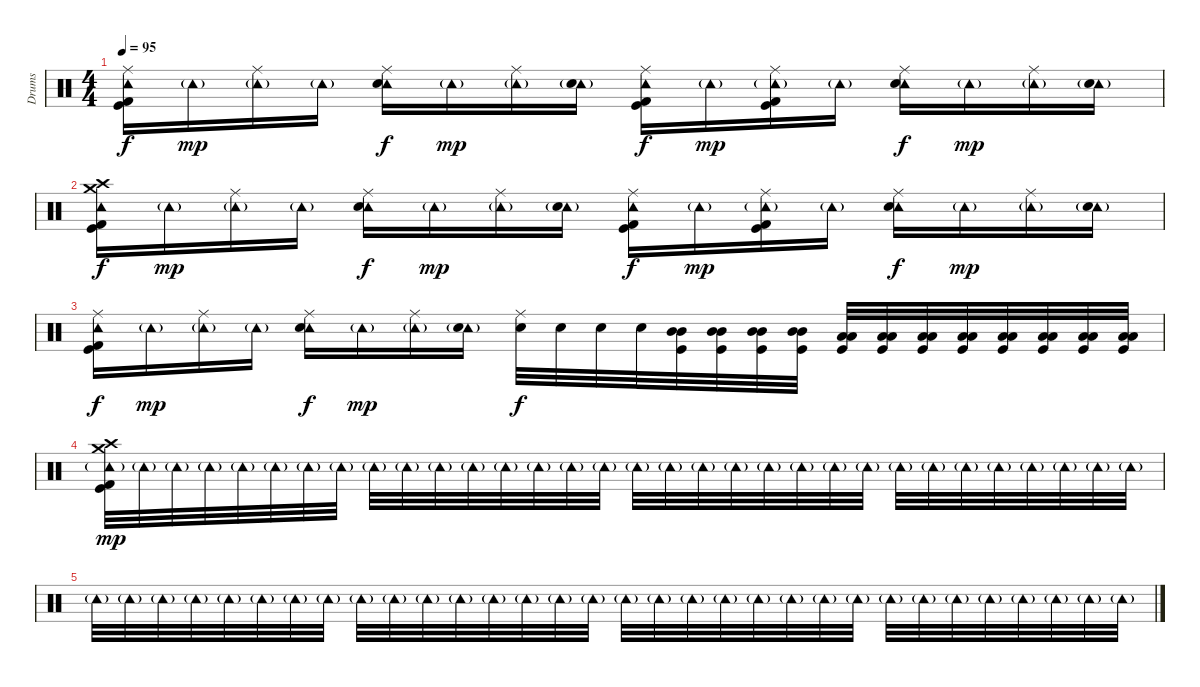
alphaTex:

\track ("Drums" "Drums") {instrument percussion}
\staff {score}
\articulation defaults
\ts (4 4)
\tempo 95
\clef neutral
\ks c
("Ride (middle)" "Tambourine (hit)" "Kick (hit) 2" "Kick (hit)").16{dy f} "Tambourine (hit)"{g}.16{dy mp} ("Ride (middle)" "Tambourine (hit)"{g}).16 "Tambourine (hit)"{g}.16 ("Ride (middle)" "Tambourine (hit)" "Snare (hit) 2").16{dy f} "Tambourine (hit)"{g}.16{dy mp} ("Ride (middle)" "Tambourine (hit)"{g}).16 ("Tambourine (hit)"{g} "Snare (hit) 2").16 ("Ride (middle)" "Tambourine (hit)" "Kick (hit) 2" "Kick (hit)").16{dy f} "Tambourine (hit)"{g}.16{dy mp} ("Ride (middle)" "Tambourine (hit)"{g} "Kick (hit) 2" "Kick (hit)").16 "Tambourine (hit)"{g}.16 ("Ride (middle)" "Tambourine (hit)" "Snare (hit) 2").16{dy f} "Tambourine (hit)"{g}.16{dy mp} ("Ride (middle)" "Tambourine (hit)"{g}).16 ("Tambourine (hit)"{g} "Snare (hit) 2").16 |
("Crash high (hit)" "Tambourine (hit)" "Crash medium (hit)" "Kick (hit) 2" "Kick (hit)").16{dy f} "Tambourine (hit)"{g}.16{dy mp} ("Ride (middle)" "Tambourine (hit)"{g}).16 "Tambourine (hit)"{g}.16 ("Ride (middle)" "Tambourine (hit)" "Snare (hit) 2").16{dy f} "Tambourine (hit)"{g}.16{dy mp} ("Ride (middle)" "Tambourine (hit)"{g}).16 ("Tambourine (hit)"{g} "Snare (hit) 2").16 ("Ride (middle)" "Tambourine (hit)" "Kick (hit) 2" "Kick (hit)").16{dy f} "Tambourine (hit)"{g}.16{dy mp} ("Ride (middle)" "Tambourine (hit)"{g} "Kick (hit) 2" "Kick (hit)").16 "Tambourine (hit)"{g}.16 ("Ride (middle)" "Tambourine (hit)" "Snare (hit) 2").16{dy f} "Tambourine (hit)"{g}.16{dy mp} ("Ride (middle)" "Tambourine (hit)"{g}).16 ("Tambourine (hit)"{g} "Snare (hit) 2").16 |
("Ride (middle)" "Tambourine (hit)" "Kick (hit) 2" "Kick (hit)").16{dy f} "Tambourine (hit)"{g}.16{dy mp} ("Ride (middle)" "Tambourine (hit)"{g}).16 "Tambourine (hit)"{g}.16 ("Ride (middle)" "Tambourine (hit)" "Snare (hit) 2").16{dy f} "Tambourine (hit)"{g}.16{dy mp} ("Ride (middle)" "Tambourine (hit)"{g}).16 ("Tambourine (hit)"{g} "Snare (hit) 2").16 ("Ride (middle)" "Snare (hit) 2").32{dy f} "Snare (hit) 2".32 "Snare (hit) 2".32 "Snare (hit) 2".32 ("Mid Tom (hit)" "Mid Tom (hit)" "Kick (hit)").32 ("Mid Tom (hit)" "Mid Tom (hit)" "Kick (hit)").32 ("Mid Tom (hit)" "Mid Tom (hit)" "Kick (hit)").32 ("Mid Tom (hit)" "Mid Tom (hit)" "Kick (hit)").32 ("Low Tom (hit)" "Low Tom (hit)" "Kick (hit)").32 ("Low Tom (hit)" "Low Tom (hit)" "Kick (hit)").32 ("Low Tom (hit)" "Low Tom (hit)" "Kick (hit)").32 ("Low Tom (hit)" "Low Tom (hit)" "Kick (hit)").32 ("Low Floor Tom (hit)" "Low Floor Tom (hit)" "Kick (hit)").32 ("Low Floor Tom (hit)" "Low Floor Tom (hit)" "Kick (hit)").32 ("Low Floor Tom (hit)" "Low Floor Tom (hit)" "Kick (hit)").32 ("Low Floor Tom (hit)" "Low Floor Tom (hit)" "Kick (hit)").32 |
("Crash high (hit)" "Tambourine (hit)"{g} "Crash medium (hit)" "Kick (hit) 2" "Kick (hit)").32{dy mp} "Tambourine (hit)"{g}.32 "Tambourine (hit)"{g}.32 "Tambourine (hit)"{g}.32 "Tambourine (hit)"{g}.32 "Tambourine (hit)"{g}.32 "Tambourine (hit)"{g}.32 "Tambourine (hit)"{g}.32 "Tambourine (hit)"{g}.32 "Tambourine (hit)"{g}.32 "Tambourine (hit)"{g}.32 "Tambourine (hit)"{g}.32 "Tambourine (hit)"{g}.32 "Tambourine (hit)"{g}.32 "Tambourine (hit)"{g}.32 "Tambourine (hit)"{g}.32 "Tambourine (hit)"{g}.32{volume 0} "Tambourine (hit)"{g}.32 "Tambourine (hit)"{g}.32 "Tambourine (hit)"{g}.32 "Tambourine (hit)"{g}.32 "Tambourine (hit)"{g}.32 "Tambourine (hit)"{g}.32 "Tambourine (hit)"{g}.32 "Tambourine (hit)"{g}.32 "Tambourine (hit)"{g}.32 "Tambourine (hit)"{g}.32 "Tambourine (hit)"{g}.32 "Tambourine (hit)"{g}.32 "Tambourine (hit)"{g}.32 "Tambourine (hit)"{g}.32 "Tambourine (hit)"{g}.32 |
"Tambourine (hit)"{g}.32 "Tambourine (hit)"{g}.32 "Tambourine (hit)"{g}.32 "Tambourine (hit)"{g}.32 "Tambourine (hit)"{g}.32 "Tambourine (hit)"{g}.32 "Tambourine (hit)"{g}.32 "Tambourine (hit)"{g}.32 "Tambourine (hit)"{g}.32 "Tambourine (hit)"{g}.32 "Tambourine (hit)"{g}.32 "Tambourine (hit)"{g}.32 "Tambourine (hit)"{g}.32 "Tambourine (hit)"{g}.32 "Tambourine (hit)"{g}.32 "Tambourine (hit)"{g}.32 "Tambourine (hit)"{g}.32 "Tambourine (hit)"{g}.32 "Tambourine (hit)"{g}.32 "Tambourine (hit)"{g}.32 "Tambourine (hit)"{g}.32 "Tambourine (hit)"{g}.32 "Tambourine (hit)"{g}.32 "Tambourine (hit)"{g}.32 "Tambourine (hit)"{g}.32 "Tambourine (hit)"{g}.32 "Tambourine (hit)"{g}.32 "Tambourine (hit)"{g}.32 "Tambourine (hit)"{g}.32 "Tambourine (hit)"{g}.32 "Tambourine (hit)"{g}.32 "Tambourine (hit)"{g}.32
